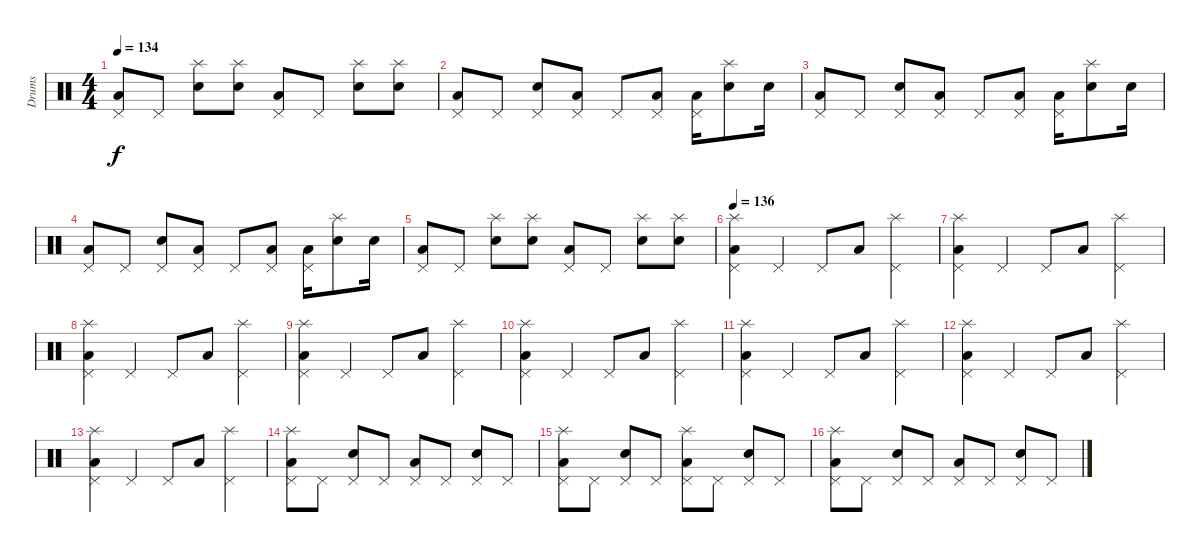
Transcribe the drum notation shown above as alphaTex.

\track ("Drums" "Drums") {instrument percussion}
\staff {score}
\articulation defaults
\ts (4 4)
\tempo 134
\clef neutral
\ks c
("Low Floor Tom (hit)" "Pedal Hi-Hat (hit)").8{dy f} "Pedal Hi-Hat (hit)".8 ("Electric Snare (hit)" "Splash (hit)").8 ("Electric Snare (hit)" "Splash (hit)").8 ("Low Floor Tom (hit)" "Pedal Hi-Hat (hit)").8 "Pedal Hi-Hat (hit)".8 ("Electric Snare (hit)" "Splash (hit)").8 ("Electric Snare (hit)" "Splash (hit)").8 |
("Low Floor Tom (hit)" "Pedal Hi-Hat (hit)").8 "Pedal Hi-Hat (hit)".8 ("Electric Snare (hit)" "Pedal Hi-Hat (hit)").8 ("Low Floor Tom (hit)" "Pedal Hi-Hat (hit)").8 "Pedal Hi-Hat (hit)".8 ("Low Floor Tom (hit)" "Pedal Hi-Hat (hit)").8 ("Low Floor Tom (hit)" "Pedal Hi-Hat (hit)").16 ("Electric Snare (hit)" "Splash (hit)").8 "Electric Snare (hit)".16 |
("Low Floor Tom (hit)" "Pedal Hi-Hat (hit)").8 "Pedal Hi-Hat (hit)".8 ("Electric Snare (hit)" "Pedal Hi-Hat (hit)").8 ("Low Floor Tom (hit)" "Pedal Hi-Hat (hit)").8 "Pedal Hi-Hat (hit)".8 ("Low Floor Tom (hit)" "Pedal Hi-Hat (hit)").8 ("Low Floor Tom (hit)" "Pedal Hi-Hat (hit)").16 ("Electric Snare (hit)" "Splash (hit)").8 "Electric Snare (hit)".16 |
("Low Floor Tom (hit)" "Pedal Hi-Hat (hit)").8 "Pedal Hi-Hat (hit)".8 ("Electric Snare (hit)" "Pedal Hi-Hat (hit)").8 ("Low Floor Tom (hit)" "Pedal Hi-Hat (hit)").8 "Pedal Hi-Hat (hit)".8 ("Low Floor Tom (hit)" "Pedal Hi-Hat (hit)").8 ("Low Floor Tom (hit)" "Pedal Hi-Hat (hit)").16 ("Electric Snare (hit)" "Splash (hit)").8 "Electric Snare (hit)".16 |
("Low Floor Tom (hit)" "Pedal Hi-Hat (hit)").8 "Pedal Hi-Hat (hit)".8 ("Electric Snare (hit)" "Splash (hit)").8 ("Electric Snare (hit)" "Splash (hit)").8 ("Low Floor Tom (hit)" "Pedal Hi-Hat (hit)").8 "Pedal Hi-Hat (hit)".8 ("Electric Snare (hit)" "Splash (hit)").8 ("Electric Snare (hit)" "Splash (hit)").8 |
\tempo 136
("Low Floor Tom (hit)" "Pedal Hi-Hat (hit)" "Splash (hit)").4 "Pedal Hi-Hat (hit)".4 "Pedal Hi-Hat (hit)".8 "Low Floor Tom (hit)".8 ("Pedal Hi-Hat (hit)" "Splash (hit)").4 |
("Low Floor Tom (hit)" "Pedal Hi-Hat (hit)" "Splash (hit)").4 "Pedal Hi-Hat (hit)".4 "Pedal Hi-Hat (hit)".8 "Low Floor Tom (hit)".8 ("Pedal Hi-Hat (hit)" "Splash (hit)").4 |
("Low Floor Tom (hit)" "Pedal Hi-Hat (hit)" "Splash (hit)").4 "Pedal Hi-Hat (hit)".4 "Pedal Hi-Hat (hit)".8 "Low Floor Tom (hit)".8 ("Pedal Hi-Hat (hit)" "Splash (hit)").4 |
("Low Floor Tom (hit)" "Pedal Hi-Hat (hit)" "Splash (hit)").4 "Pedal Hi-Hat (hit)".4 "Pedal Hi-Hat (hit)".8 "Low Floor Tom (hit)".8 ("Pedal Hi-Hat (hit)" "Splash (hit)").4 |
("Low Floor Tom (hit)" "Pedal Hi-Hat (hit)" "Splash (hit)").4 "Pedal Hi-Hat (hit)".4 "Pedal Hi-Hat (hit)".8 "Low Floor Tom (hit)".8 ("Pedal Hi-Hat (hit)" "Splash (hit)").4 |
("Low Floor Tom (hit)" "Pedal Hi-Hat (hit)" "Splash (hit)").4 "Pedal Hi-Hat (hit)".4 "Pedal Hi-Hat (hit)".8 "Low Floor Tom (hit)".8 ("Pedal Hi-Hat (hit)" "Splash (hit)").4 |
("Low Floor Tom (hit)" "Pedal Hi-Hat (hit)" "Splash (hit)").4 "Pedal Hi-Hat (hit)".4 "Pedal Hi-Hat (hit)".8 "Low Floor Tom (hit)".8 ("Pedal Hi-Hat (hit)" "Splash (hit)").4 |
("Low Floor Tom (hit)" "Pedal Hi-Hat (hit)" "Splash (hit)").4 "Pedal Hi-Hat (hit)".4 "Pedal Hi-Hat (hit)".8 "Low Floor Tom (hit)".8 ("Pedal Hi-Hat (hit)" "Splash (hit)").4 |
("Low Floor Tom (hit)" "Pedal Hi-Hat (hit)" "Splash (hit)").8 "Pedal Hi-Hat (hit)".8 ("Electric Snare (hit)" "Pedal Hi-Hat (hit)").8 "Pedal Hi-Hat (hit)".8 ("Low Floor Tom (hit)" "Pedal Hi-Hat (hit)").8 "Pedal Hi-Hat (hit)".8 ("Electric Snare (hit)" "Pedal Hi-Hat (hit)").8 "Pedal Hi-Hat (hit)".8 |
("Low Floor Tom (hit)" "Pedal Hi-Hat (hit)" "Splash (hit)").8 "Pedal Hi-Hat (hit)".8 ("Electric Snare (hit)" "Pedal Hi-Hat (hit)").8 "Pedal Hi-Hat (hit)".8 ("Low Floor Tom (hit)" "Pedal Hi-Hat (hit)" "Splash (hit)").8 "Pedal Hi-Hat (hit)".8 ("Electric Snare (hit)" "Pedal Hi-Hat (hit)").8 "Pedal Hi-Hat (hit)".8 |
("Low Floor Tom (hit)" "Pedal Hi-Hat (hit)" "Splash (hit)").8 "Pedal Hi-Hat (hit)".8 ("Electric Snare (hit)" "Pedal Hi-Hat (hit)").8 "Pedal Hi-Hat (hit)".8 ("Low Floor Tom (hit)" "Pedal Hi-Hat (hit)").8 "Pedal Hi-Hat (hit)".8 ("Electric Snare (hit)" "Pedal Hi-Hat (hit)").8 "Pedal Hi-Hat (hit)".8
